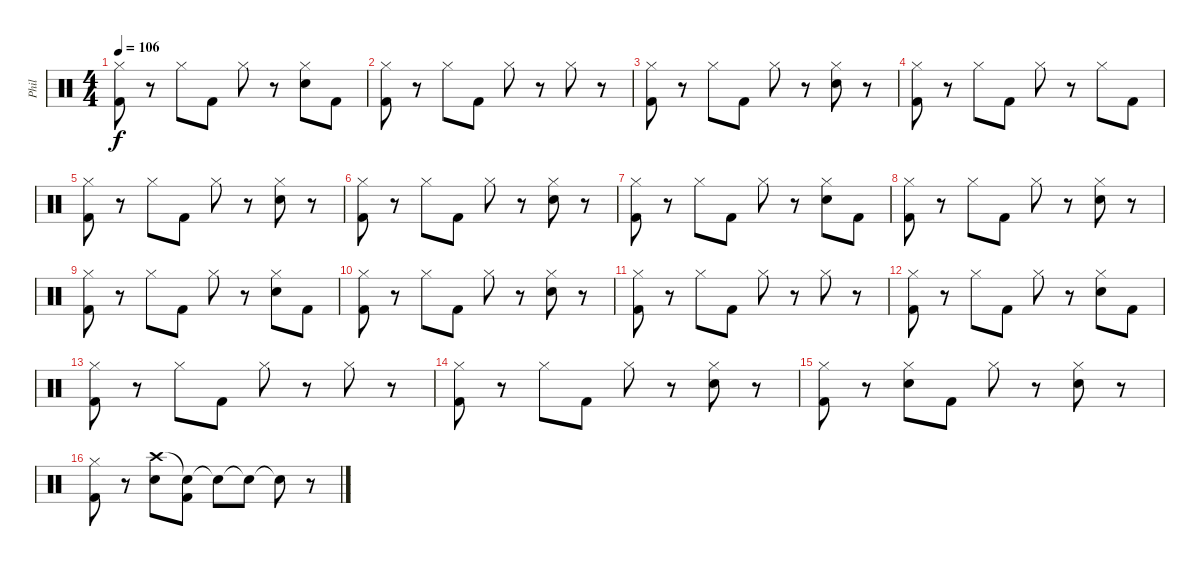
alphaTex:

\track ("Phil" "Phil") {instrument percussion}
\staff {score}
\articulation defaults
\ts (4 4)
\tempo 106
\clef neutral
\ks c
("Hi-Hat (closed)" "Kick (hit) 2").8{dy f} r.8 "Hi-Hat (closed)".8 "Kick (hit) 2".8 "Hi-Hat (closed)".8 r.8 ("Hi-Hat (closed)" "Snare (hit) 2").8 "Kick (hit) 2".8 |
("Hi-Hat (closed)" "Kick (hit) 2").8 r.8 "Hi-Hat (closed)".8 "Kick (hit) 2".8 "Hi-Hat (closed)".8 r.8 "Hi-Hat (closed)".8 r.8 |
("Hi-Hat (closed)" "Kick (hit) 2").8 r.8 "Hi-Hat (closed)".8 "Kick (hit) 2".8 "Hi-Hat (closed)".8 r.8 ("Hi-Hat (closed)" "Snare (hit) 2").8 r.8 |
("Hi-Hat (closed)" "Kick (hit) 2").8 r.8 "Hi-Hat (closed)".8 "Kick (hit) 2".8 "Hi-Hat (closed)".8 r.8 "Hi-Hat (closed)".8 "Kick (hit) 2".8 |
("Hi-Hat (closed)" "Kick (hit) 2").8 r.8 "Hi-Hat (closed)".8 "Kick (hit) 2".8 "Hi-Hat (closed)".8 r.8 ("Hi-Hat (closed)" "Snare (hit) 2").8 r.8 |
("Hi-Hat (closed)" "Kick (hit) 2").8 r.8 "Hi-Hat (closed)".8 "Kick (hit) 2".8 "Hi-Hat (closed)".8 r.8 ("Hi-Hat (closed)" "Snare (hit) 2").8 r.8 |
("Hi-Hat (closed)" "Kick (hit) 2").8 r.8 "Hi-Hat (closed)".8 "Kick (hit) 2".8 "Hi-Hat (closed)".8 r.8 ("Hi-Hat (closed)" "Snare (hit) 2").8 "Kick (hit) 2".8 |
("Hi-Hat (closed)" "Kick (hit) 2").8 r.8 "Hi-Hat (closed)".8 "Kick (hit) 2".8 "Hi-Hat (closed)".8 r.8 ("Hi-Hat (closed)" "Snare (hit) 2").8 r.8 |
("Hi-Hat (closed)" "Kick (hit) 2").8 r.8 "Hi-Hat (closed)".8 "Kick (hit) 2".8 "Hi-Hat (closed)".8 r.8 ("Hi-Hat (closed)" "Snare (hit) 2").8 "Kick (hit) 2".8 |
("Hi-Hat (closed)" "Kick (hit) 2").8 r.8 "Hi-Hat (closed)".8 "Kick (hit) 2".8 "Hi-Hat (closed)".8 r.8 ("Hi-Hat (closed)" "Snare (hit) 2").8 r.8 |
("Hi-Hat (closed)" "Kick (hit) 2").8 r.8 "Hi-Hat (closed)".8 "Kick (hit) 2".8 "Hi-Hat (closed)".8 r.8 "Hi-Hat (closed)".8 r.8 |
("Hi-Hat (closed)" "Kick (hit) 2").8 r.8 "Hi-Hat (closed)".8 "Kick (hit) 2".8 "Hi-Hat (closed)".8 r.8 ("Hi-Hat (closed)" "Snare (hit) 2").8 "Kick (hit) 2".8 |
("Hi-Hat (closed)" "Kick (hit) 2").8 r.8 "Hi-Hat (closed)".8 "Kick (hit) 2".8 "Hi-Hat (closed)".8 r.8 "Hi-Hat (closed)".8 r.8 |
("Hi-Hat (closed)" "Kick (hit) 2").8 r.8 "Hi-Hat (closed)".8 "Kick (hit) 2".8 "Hi-Hat (closed)".8 r.8 ("Hi-Hat (closed)" "Snare (hit) 2").8 r.8 |
("Hi-Hat (closed)" "Kick (hit) 2").8 r.8 ("Hi-Hat (closed)" "Snare (hit) 2").8 "Kick (hit) 2".8 "Hi-Hat (closed)".8 r.8 ("Hi-Hat (closed)" "Snare (hit) 2").8 r.8 |
("Hi-Hat (closed)" "Kick (hit) 2").8 r.8 ("Crash high (hit)" "Snare (hit) 2").8 ("Snare (hit)"{t} "Kick (hit) 2").8 "Snare (hit)"{t}.8 "Snare (hit)"{t}.8 "Snare (hit)"{t}.8 r.8
